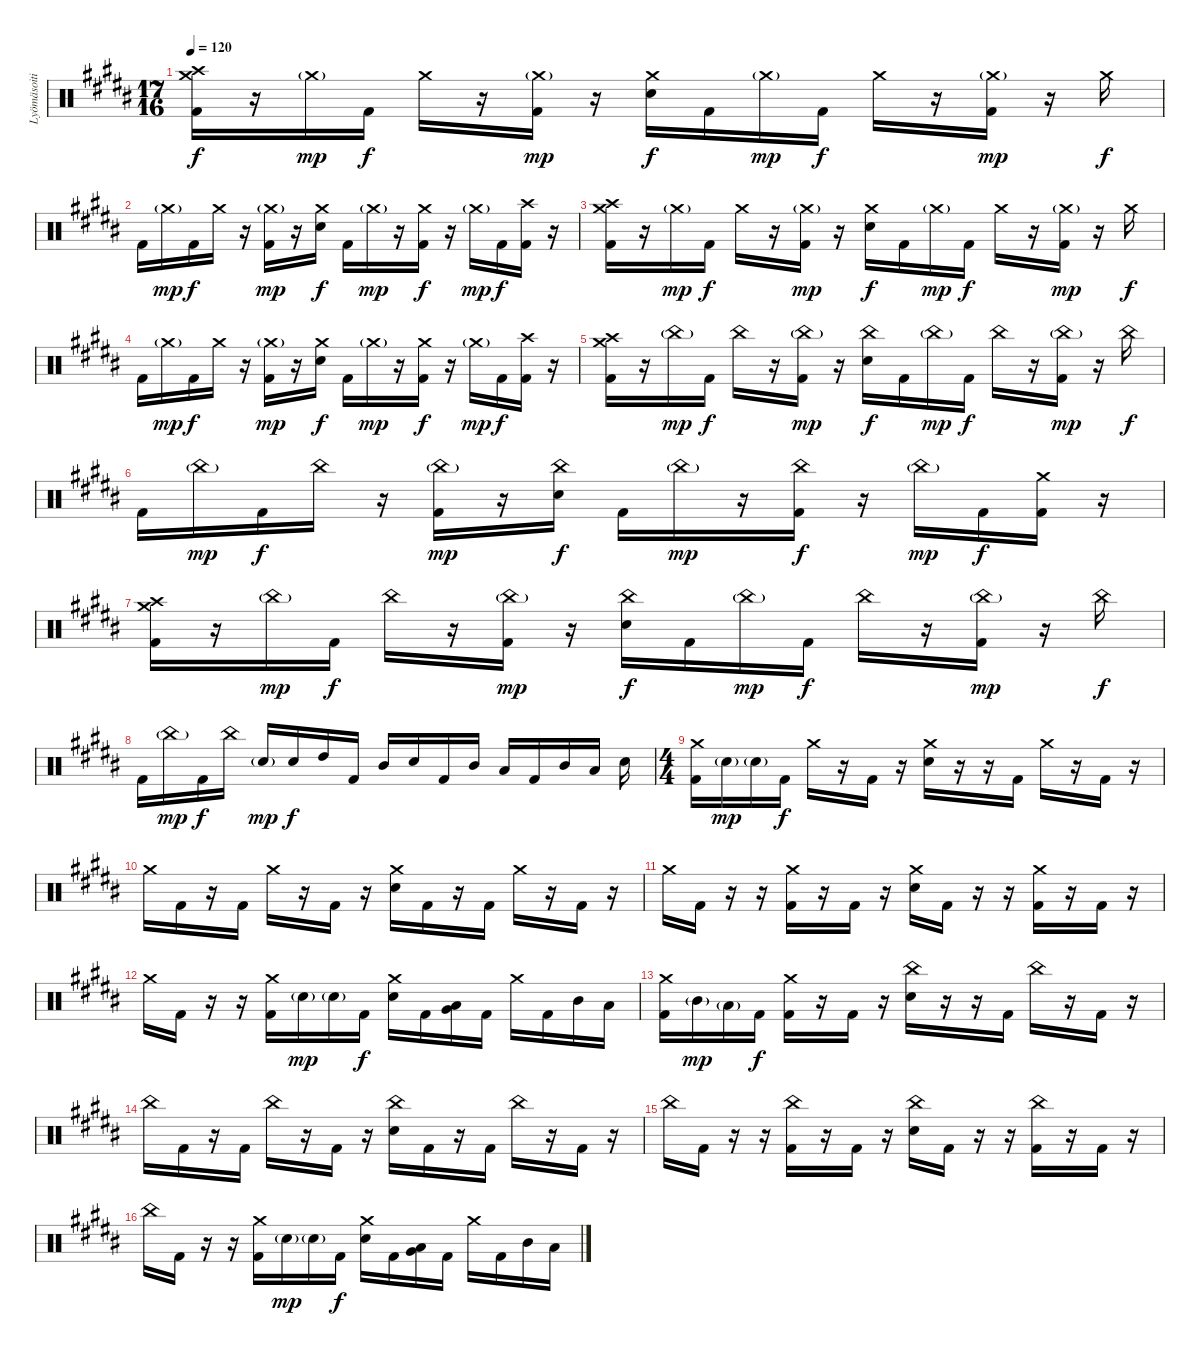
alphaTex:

\track ("Lyömäsoitin" "Lyömäsoiti") {instrument percussion}
\staff {score}
\articulation defaults
\ts (17 16)
\tempo 120
\clef neutral
\ks g#minor
("Crash medium (hit)" "Crash high (hit)" "Kick (hit) 2").16{dy f} r.16 "Crash medium (hit)"{g}.16{dy mp} "Kick (hit) 2".16{dy f} "Crash medium (hit)".16 r.16 ("Crash medium (hit)"{g} "Kick (hit) 2").16{dy mp} r.16 ("Crash medium (hit)" "Electric Snare (hit)").16{dy f} "Kick (hit) 2".16 "Crash medium (hit)"{g}.16{dy mp} "Kick (hit) 2".16{dy f} "Crash medium (hit)".16 r.16 ("Crash medium (hit)"{g} "Kick (hit) 2").16{dy mp} r.16 "Crash medium (hit)".16{dy f} |
"Kick (hit) 2".16 "Crash medium (hit)"{g}.16{dy mp} "Kick (hit) 2".16{dy f} "Crash medium (hit)".16 r.16 ("Crash medium (hit)"{g} "Kick (hit) 2").16{dy mp} r.16 ("Crash medium (hit)" "Electric Snare (hit)").16{dy f} "Kick (hit) 2".16 "Crash medium (hit)"{g}.16{dy mp} r.16 ("Crash medium (hit)" "Kick (hit) 2").16{dy f} r.16 "Crash medium (hit)"{g}.16{dy mp} "Kick (hit) 2".16{dy f} ("Crash high (hit)" "Kick (hit) 2").16 r.16 |
("Crash medium (hit)" "Crash high (hit)" "Kick (hit) 2").16 r.16 "Crash medium (hit)"{g}.16{dy mp} "Kick (hit) 2".16{dy f} "Crash medium (hit)".16 r.16 ("Crash medium (hit)"{g} "Kick (hit) 2").16{dy mp} r.16 ("Crash medium (hit)" "Electric Snare (hit)").16{dy f} "Kick (hit) 2".16 "Crash medium (hit)"{g}.16{dy mp} "Kick (hit) 2".16{dy f} "Crash medium (hit)".16 r.16 ("Crash medium (hit)"{g} "Kick (hit) 2").16{dy mp} r.16 "Crash medium (hit)".16{dy f} |
"Kick (hit) 2".16 "Crash medium (hit)"{g}.16{dy mp} "Kick (hit) 2".16{dy f} "Crash medium (hit)".16 r.16 ("Crash medium (hit)"{g} "Kick (hit) 2").16{dy mp} r.16 ("Crash medium (hit)" "Electric Snare (hit)").16{dy f} "Kick (hit) 2".16 "Crash medium (hit)"{g}.16{dy mp} r.16 ("Crash medium (hit)" "Kick (hit) 2").16{dy f} r.16 "Crash medium (hit)"{g}.16{dy mp} "Kick (hit) 2".16{dy f} ("Crash high (hit)" "Kick (hit) 2").16 r.16 |
("Crash medium (hit)" "Crash high (hit)" "Kick (hit) 2").16 r.16 "China (hit)"{g}.16{dy mp} "Kick (hit) 2".16{dy f} "China (hit)".16 r.16 ("China (hit)"{g} "Kick (hit) 2").16{dy mp} r.16 ("China (hit)" "Electric Snare (hit)").16{dy f} "Kick (hit) 2".16 "China (hit)"{g}.16{dy mp} "Kick (hit) 2".16{dy f} "China (hit)".16 r.16 ("China (hit)"{g} "Kick (hit) 2").16{dy mp} r.16 "China (hit)".16{dy f} |
"Kick (hit) 2".16 "China (hit)"{g}.16{dy mp} "Kick (hit) 2".16{dy f} "China (hit)".16 r.16 ("China (hit)"{g} "Kick (hit) 2").16{dy mp} r.16 ("China (hit)" "Electric Snare (hit)").16{dy f} "Kick (hit) 2".16 "China (hit)"{g}.16{dy mp} r.16 ("China (hit)" "Kick (hit) 2").16{dy f} r.16 "China (hit)"{g}.16{dy mp} "Kick (hit) 2".16{dy f} ("Crash medium (hit)" "Kick (hit) 2").16 r.16 |
("Crash medium (hit)" "Crash high (hit)" "Kick (hit) 2").16 r.16 "China (hit)"{g}.16{dy mp} "Kick (hit) 2".16{dy f} "China (hit)".16 r.16 ("China (hit)"{g} "Kick (hit) 2").16{dy mp} r.16 ("China (hit)" "Electric Snare (hit)").16{dy f} "Kick (hit) 2".16 "China (hit)"{g}.16{dy mp} "Kick (hit) 2".16{dy f} "China (hit)".16 r.16 ("China (hit)"{g} "Kick (hit) 2").16{dy mp} r.16 "China (hit)".16{dy f} |
"Kick (hit) 2".16 "China (hit)"{g}.16{dy mp} "Kick (hit) 2".16{dy f} "China (hit)".16 "Electric Snare (hit)"{g}.16{dy mp} "Electric Snare (hit)".16{dy f} "High Tom (hit)".16 "Kick (hit) 2".16 "Mid Tom (hit)".16 "Electric Snare (hit)".16 "Kick (hit) 2".16 "Mid Tom (hit)".16 "Low Tom (hit)".16 "Kick (hit) 2".16 "Mid Tom (hit)".16 "Low Tom (hit)".16 "Electric Snare (hit)".16 |
\ts (4 4)
("Crash medium (hit)" "Kick (hit) 2").16 "Electric Snare (hit)"{g}.16{dy mp} "Electric Snare (hit)"{g}.16 "Kick (hit) 2".16{dy f} "Crash medium (hit)".16 r.16 "Kick (hit) 2".16 r.16 ("Crash medium (hit)" "Electric Snare (hit)").16 r.16 r.16 "Kick (hit) 2".16 "Crash medium (hit)".16 r.16 "Kick (hit) 2".16 r.16 |
"Crash medium (hit)".16 "Kick (hit) 2".16 r.16 "Kick (hit) 2".16 "Crash medium (hit)".16 r.16 "Kick (hit) 2".16 r.16 ("Crash medium (hit)" "Electric Snare (hit)").16 "Kick (hit) 2".16 r.16 "Kick (hit) 2".16 "Crash medium (hit)".16 r.16 "Kick (hit) 2".16 r.16 |
"Crash medium (hit)".16 "Kick (hit) 2".16 r.16 r.16 ("Crash medium (hit)" "Kick (hit) 2").16 r.16 "Kick (hit) 2".16 r.16 ("Crash medium (hit)" "Electric Snare (hit)").16 "Kick (hit) 2".16 r.16 r.16 ("Crash medium (hit)" "Kick (hit) 2").16 r.16 "Kick (hit) 2".16 r.16 |
"Crash medium (hit)".16 "Kick (hit) 2".16 r.16 r.16 ("Crash medium (hit)" "Kick (hit) 2").16 "Electric Snare (hit)"{g}.16{dy mp} "Electric Snare (hit)"{g}.16 "Kick (hit) 2".16{dy f} ("Crash medium (hit)" "Electric Snare (hit)").16 "Kick (hit) 2".16 ("Very Low Tom (hit)" "Low Floor Tom (hit)").16 "Kick (hit) 2".16 "Crash medium (hit)".16 "Kick (hit) 2".16 "Mid Tom (hit)".16 "Low Tom (hit)".16 |
("Crash medium (hit)" "Kick (hit) 2").16 "Mid Tom (hit)"{g}.16{dy mp} "Low Tom (hit)"{g}.16 "Kick (hit) 2".16{dy f} ("Crash medium (hit)" "Kick (hit) 2").16 r.16 "Kick (hit) 2".16 r.16 ("China (hit)" "Electric Snare (hit)").16 r.16 r.16 "Kick (hit) 2".16 "China (hit)".16 r.16 "Kick (hit) 2".16 r.16 |
"China (hit)".16 "Kick (hit) 2".16 r.16 "Kick (hit) 2".16 "China (hit)".16 r.16 "Kick (hit) 2".16 r.16 ("China (hit)" "Electric Snare (hit)").16 "Kick (hit) 2".16 r.16 "Kick (hit) 2".16 "China (hit)".16 r.16 "Kick (hit) 2".16 r.16 |
"China (hit)".16 "Kick (hit) 2".16 r.16 r.16 ("China (hit)" "Kick (hit) 2").16 r.16 "Kick (hit) 2".16 r.16 ("China (hit)" "Electric Snare (hit)").16 "Kick (hit) 2".16 r.16 r.16 ("China (hit)" "Kick (hit) 2").16 r.16 "Kick (hit) 2".16 r.16 |
"China (hit)".16 "Kick (hit) 2".16 r.16 r.16 ("Crash medium (hit)" "Kick (hit) 2").16 "Electric Snare (hit)"{g}.16{dy mp} "Electric Snare (hit)"{g}.16 "Kick (hit) 2".16{dy f} ("Crash medium (hit)" "Electric Snare (hit)").16 "Kick (hit) 2".16 ("Very Low Tom (hit)" "Low Floor Tom (hit)").16 "Kick (hit) 2".16 "Crash medium (hit)".16 "Kick (hit) 2".16 "Mid Tom (hit)".16 "Low Tom (hit)".16
